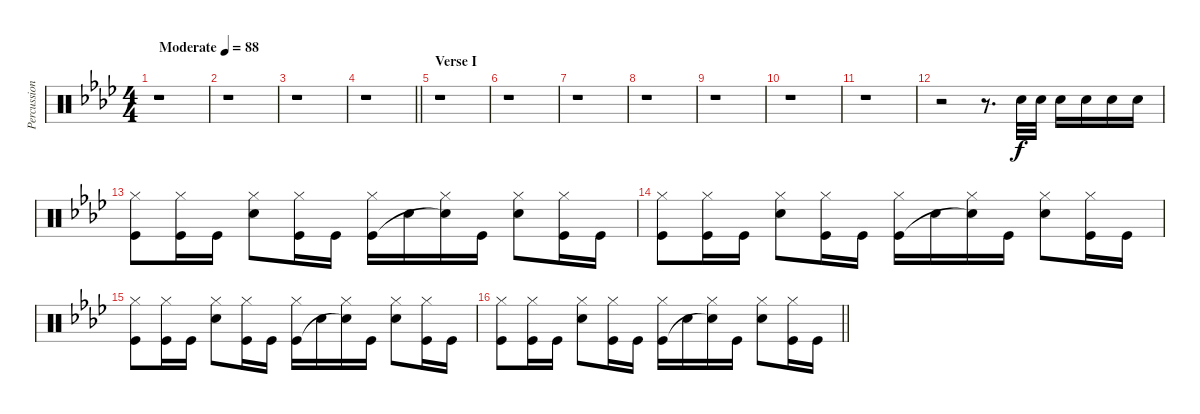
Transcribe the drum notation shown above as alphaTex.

\track ("Percussion" "Percussion") {instrument percussion}
\staff {score}
\articulation defaults
\ts (4 4)
\tempo (88 "Moderate")
\clef neutral
\ks ab
r.1{dy f} |
r.1 |
r.1 |
\barLineRight lightlight
r.1 |
\section ("" "Verse I")
r.1 |
r.1 |
r.1 |
r.1 |
r.1 |
r.1 |
r.1 |
r.2 r.8{d} "Snare (hit) 2".32 "Snare (hit) 2".32 "Snare (hit) 2".16 "Snare (hit) 2".16 "Snare (hit) 2".16 "Snare (hit) 2".16 |
("Hi-Hat (closed)" "Kick (hit)").8 ("Hi-Hat (closed)" "Kick (hit)").16 "Kick (hit)".16 ("Hi-Hat (closed)" "Snare (hit) 2").8 ("Hi-Hat (closed)" "Kick (hit)").16 "Kick (hit)".16 ("Hi-Hat (closed)" "Kick (hit)").16 "Snare (hit) 2".16 ("Hi-Hat (closed)" "Snare (hit) 2"{t}).16 "Kick (hit)".16 ("Hi-Hat (closed)" "Snare (hit) 2").8 ("Hi-Hat (closed)" "Kick (hit)").16 "Kick (hit)".16 |
("Hi-Hat (closed)" "Kick (hit)").8 ("Hi-Hat (closed)" "Kick (hit)").16 "Kick (hit)".16 ("Hi-Hat (closed)" "Snare (hit) 2").8 ("Hi-Hat (closed)" "Kick (hit)").16 "Kick (hit)".16 ("Hi-Hat (closed)" "Kick (hit)").16 "Snare (hit) 2".16 ("Hi-Hat (closed)" "Snare (hit) 2"{t}).16 "Kick (hit)".16 ("Hi-Hat (closed)" "Snare (hit) 2").8 ("Hi-Hat (closed)" "Kick (hit)").16 "Kick (hit)".16 |
("Hi-Hat (closed)" "Kick (hit)").8 ("Hi-Hat (closed)" "Kick (hit)").16 "Kick (hit)".16 ("Hi-Hat (closed)" "Snare (hit) 2").8 ("Hi-Hat (closed)" "Kick (hit)").16 "Kick (hit)".16 ("Hi-Hat (closed)" "Kick (hit)").16 "Snare (hit) 2".16 ("Hi-Hat (closed)" "Snare (hit) 2"{t}).16 "Kick (hit)".16 ("Hi-Hat (closed)" "Snare (hit) 2").8 ("Hi-Hat (closed)" "Kick (hit)").16 "Kick (hit)".16 |
\barLineRight lightlight
("Hi-Hat (closed)" "Kick (hit)").8 ("Hi-Hat (closed)" "Kick (hit)").16 "Kick (hit)".16 ("Hi-Hat (closed)" "Snare (hit) 2").8 ("Hi-Hat (closed)" "Kick (hit)").16 "Kick (hit)".16 ("Hi-Hat (closed)" "Kick (hit)").16 "Snare (hit) 2".16 ("Hi-Hat (closed)" "Snare (hit) 2"{t}).16 "Kick (hit)".16 ("Hi-Hat (closed)" "Snare (hit) 2").8 ("Hi-Hat (closed)" "Kick (hit)").16 "Kick (hit)".16
